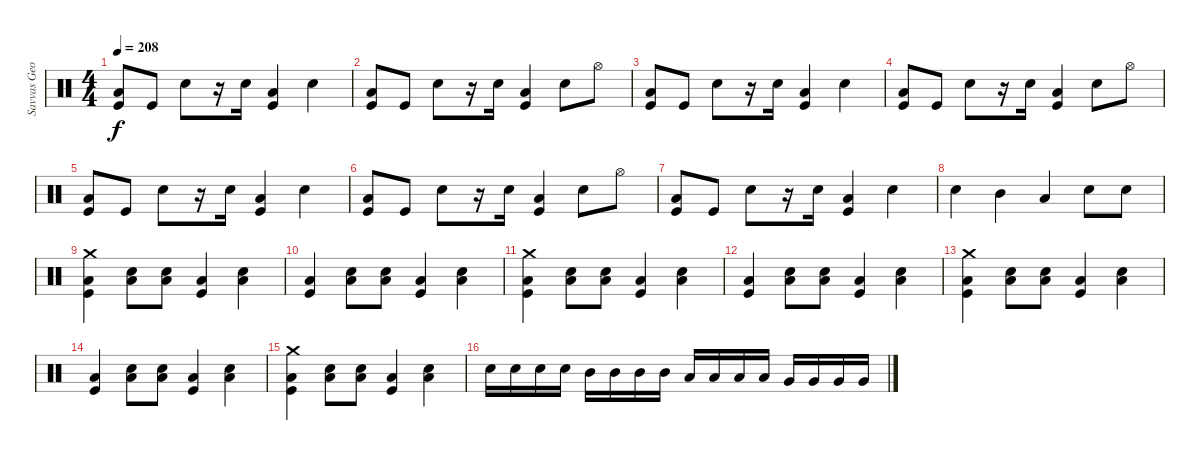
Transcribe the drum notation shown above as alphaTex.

\track ("Savvas Georgiadis" "Savvas Geo") {instrument percussion}
\staff {score}
\articulation defaults
\ts (4 4)
\tempo 208
\clef neutral
\ks c
("Low Tom (hit)" "Kick (hit)").8{dy f} "Kick (hit)".8 "Electric Snare (hit)".8 r.16 "Electric Snare (hit)".16 ("Low Tom (hit)" "Kick (hit)").4 "Electric Snare (hit)".4 |
("Low Tom (hit)" "Kick (hit)").8 "Kick (hit)".8 "Electric Snare (hit)".8 r.16 "Electric Snare (hit)".16 ("Low Tom (hit)" "Kick (hit)").4 "Electric Snare (hit)".8 "Hi-Hat (open)".8 |
("Low Tom (hit)" "Kick (hit)").8 "Kick (hit)".8 "Electric Snare (hit)".8 r.16 "Electric Snare (hit)".16 ("Low Tom (hit)" "Kick (hit)").4 "Electric Snare (hit)".4 |
("Low Tom (hit)" "Kick (hit)").8 "Kick (hit)".8 "Electric Snare (hit)".8 r.16 "Electric Snare (hit)".16 ("Low Tom (hit)" "Kick (hit)").4 "Electric Snare (hit)".8 "Hi-Hat (open)".8 |
("Low Tom (hit)" "Kick (hit)").8 "Kick (hit)".8 "Electric Snare (hit)".8 r.16 "Electric Snare (hit)".16 ("Low Tom (hit)" "Kick (hit)").4 "Electric Snare (hit)".4 |
("Low Tom (hit)" "Kick (hit)").8 "Kick (hit)".8 "Electric Snare (hit)".8 r.16 "Electric Snare (hit)".16 ("Low Tom (hit)" "Kick (hit)").4 "Electric Snare (hit)".8 "Hi-Hat (open)".8 |
("Low Tom (hit)" "Kick (hit)").8 "Kick (hit)".8 "Electric Snare (hit)".8 r.16 "Electric Snare (hit)".16 ("Low Tom (hit)" "Kick (hit)").4 "Electric Snare (hit)".4 |
"Electric Snare (hit)".4 "Mid Tom (hit)".4 "Low Tom (hit)".4 "Electric Snare (hit)".8 "Electric Snare (hit)".8 |
("Crash medium (hit)" "Low Tom (hit)" "Kick (hit)").4 ("Electric Snare (hit)" "Low Tom (hit)").8 ("Electric Snare (hit)" "Low Tom (hit)").8 ("Low Tom (hit)" "Kick (hit)").4 ("Electric Snare (hit)" "Low Tom (hit)").4 |
("Low Tom (hit)" "Kick (hit)").4 ("Electric Snare (hit)" "Low Tom (hit)").8 ("Electric Snare (hit)" "Low Tom (hit)").8 ("Low Tom (hit)" "Kick (hit)").4 ("Electric Snare (hit)" "Low Tom (hit)").4 |
("Crash medium (hit)" "Low Tom (hit)" "Kick (hit)").4 ("Electric Snare (hit)" "Low Tom (hit)").8 ("Electric Snare (hit)" "Low Tom (hit)").8 ("Low Tom (hit)" "Kick (hit)").4 ("Electric Snare (hit)" "Low Tom (hit)").4 |
("Low Tom (hit)" "Kick (hit)").4 ("Electric Snare (hit)" "Low Tom (hit)").8 ("Electric Snare (hit)" "Low Tom (hit)").8 ("Low Tom (hit)" "Kick (hit)").4 ("Electric Snare (hit)" "Low Tom (hit)").4 |
("Crash medium (hit)" "Low Tom (hit)" "Kick (hit)").4 ("Electric Snare (hit)" "Low Tom (hit)").8 ("Electric Snare (hit)" "Low Tom (hit)").8 ("Low Tom (hit)" "Kick (hit)").4 ("Electric Snare (hit)" "Low Tom (hit)").4 |
("Low Tom (hit)" "Kick (hit)").4 ("Electric Snare (hit)" "Low Tom (hit)").8 ("Electric Snare (hit)" "Low Tom (hit)").8 ("Low Tom (hit)" "Kick (hit)").4 ("Electric Snare (hit)" "Low Tom (hit)").4 |
("Crash medium (hit)" "Low Tom (hit)" "Kick (hit)").4 ("Electric Snare (hit)" "Low Tom (hit)").8 ("Electric Snare (hit)" "Low Tom (hit)").8 ("Low Tom (hit)" "Kick (hit)").4 ("Electric Snare (hit)" "Low Tom (hit)").4 |
"Electric Snare (hit)".16 "Electric Snare (hit)".16 "Electric Snare (hit)".16 "Electric Snare (hit)".16 "Mid Tom (hit)".16 "Mid Tom (hit)".16 "Mid Tom (hit)".16 "Mid Tom (hit)".16 "Low Tom (hit)".16 "Low Tom (hit)".16 "Low Tom (hit)".16 "Low Tom (hit)".16 "Very Low Tom (hit)".16 "Very Low Tom (hit)".16 "Very Low Tom (hit)".16 "Very Low Tom (hit)".16
